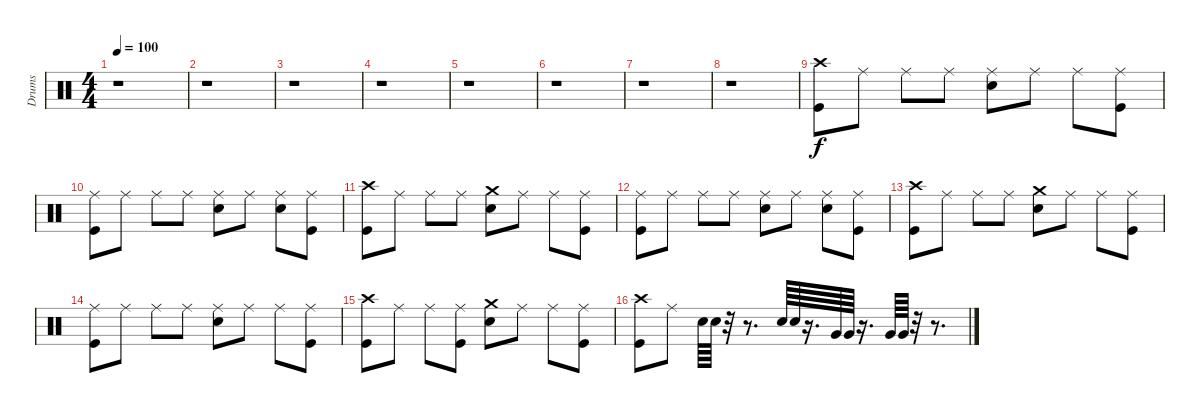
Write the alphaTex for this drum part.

\track ("Drums" "Drums") {instrument percussion}
\staff {score}
\articulation defaults
\ts (4 4)
\tempo 100
\clef neutral
\ks c
r.1{dy f} |
r.1 |
r.1 |
r.1 |
r.1 |
r.1 |
r.1 |
r.1 |
("Crash high (hit)" "Kick (hit)").8 "Ride (middle)".8 "Ride (middle)".8 "Ride (middle)".8 ("Ride (middle)" "Snare (hit) 2").8 "Ride (middle)".8 "Ride (middle)".8 ("Ride (middle)" "Kick (hit)").8 |
("Ride (middle)" "Kick (hit)").8 "Ride (middle)".8 "Ride (middle)".8 "Ride (middle)".8 ("Ride (middle)" "Snare (hit) 2").8 "Ride (middle)".8 ("Ride (middle)" "Snare (hit) 2").8 ("Ride (middle)" "Kick (hit)").8 |
("Crash high (hit)" "Kick (hit)").8 "Ride (middle)".8 "Ride (middle)".8 "Ride (middle)".8 ("Crash medium (hit)" "Snare (hit) 2").8 "Ride (middle)".8 "Ride (middle)".8 ("Ride (middle)" "Kick (hit)").8 |
("Ride (middle)" "Kick (hit)").8 "Ride (middle)".8 "Ride (middle)".8 "Ride (middle)".8 ("Ride (middle)" "Snare (hit) 2").8 "Ride (middle)".8 ("Ride (middle)" "Snare (hit) 2").8 ("Ride (middle)" "Kick (hit)").8 |
("Crash high (hit)" "Kick (hit)").8 "Ride (middle)".8 "Ride (middle)".8 "Ride (middle)".8 ("Crash medium (hit)" "Snare (hit) 2").8 "Ride (middle)".8 "Ride (middle)".8 ("Ride (middle)" "Kick (hit)").8 |
("Ride (middle)" "Kick (hit)").8 "Ride (middle)".8 "Ride (middle)".8 "Ride (middle)".8 ("Ride (middle)" "Snare (hit) 2").8 "Ride (middle)".8 "Ride (middle)".8 ("Ride (middle)" "Kick (hit)").8 |
("Crash high (hit)" "Kick (hit)").8 "Ride (middle)".8 "Ride (middle)".8 ("Ride (middle)" "Kick (hit)").8 ("Crash medium (hit)" "Snare (hit) 2").8 "Ride (middle)".8 "Ride (middle)".8 ("Ride (middle)" "Kick (hit)").8 |
("Crash high (hit)" "Kick (hit)").8 "Ride (middle)".8 "Snare (hit) 2".64 "Snare (hit) 2".64 r.32 r.8{d} "Snare (hit) 2".64 "Snare (hit) 2".64 r.16{d} "Very Low Tom (hit)".64 "Very Low Tom (hit)".64 r.16{d} "Very Low Tom (hit)".64 "Very Low Tom (hit)".64 r.32 r.8{d}
